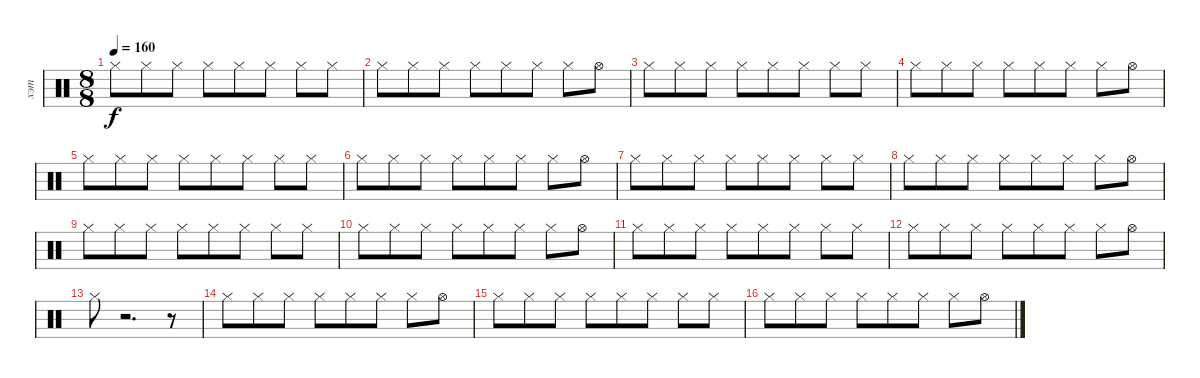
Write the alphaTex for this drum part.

\track ("хэт" "хэт") {instrument percussion}
\staff {score}
\articulation defaults
\ts (8 8)
\tempo 160
\clef neutral
\ks c "Hi-Hat (closed)".8{dy f} "Hi-Hat (closed)".8 "Hi-Hat (closed)".8 "Hi-Hat (closed)".8 "Hi-Hat (closed)".8 "Hi-Hat (closed)".8 "Hi-Hat (closed)".8 "Hi-Hat (closed)".8
|
"Hi-Hat (closed)".8 "Hi-Hat (closed)".8 "Hi-Hat (closed)".8 "Hi-Hat (closed)".8 "Hi-Hat (closed)".8 "Hi-Hat (closed)".8 "Hi-Hat (closed)".8 "Hi-Hat (open)".8 |
"Hi-Hat (closed)".8 "Hi-Hat (closed)".8 "Hi-Hat (closed)".8 "Hi-Hat (closed)".8 "Hi-Hat (closed)".8 "Hi-Hat (closed)".8 "Hi-Hat (closed)".8 "Hi-Hat (closed)".8 |
"Hi-Hat (closed)".8 "Hi-Hat (closed)".8 "Hi-Hat (closed)".8 "Hi-Hat (closed)".8 "Hi-Hat (closed)".8 "Hi-Hat (closed)".8 "Hi-Hat (closed)".8 "Hi-Hat (open)".8 |
"Hi-Hat (closed)".8 "Hi-Hat (closed)".8 "Hi-Hat (closed)".8 "Hi-Hat (closed)".8 "Hi-Hat (closed)".8 "Hi-Hat (closed)".8 "Hi-Hat (closed)".8 "Hi-Hat (closed)".8 |
"Hi-Hat (closed)".8 "Hi-Hat (closed)".8 "Hi-Hat (closed)".8 "Hi-Hat (closed)".8 "Hi-Hat (closed)".8 "Hi-Hat (closed)".8 "Hi-Hat (closed)".8 "Hi-Hat (open)".8 |
"Hi-Hat (closed)".8 "Hi-Hat (closed)".8 "Hi-Hat (closed)".8 "Hi-Hat (closed)".8 "Hi-Hat (closed)".8 "Hi-Hat (closed)".8 "Hi-Hat (closed)".8 "Hi-Hat (closed)".8 |
"Hi-Hat (closed)".8 "Hi-Hat (closed)".8 "Hi-Hat (closed)".8 "Hi-Hat (closed)".8 "Hi-Hat (closed)".8 "Hi-Hat (closed)".8 "Hi-Hat (closed)".8 "Hi-Hat (open)".8 |
"Hi-Hat (closed)".8 "Hi-Hat (closed)".8 "Hi-Hat (closed)".8 "Hi-Hat (closed)".8 "Hi-Hat (closed)".8 "Hi-Hat (closed)".8 "Hi-Hat (closed)".8 "Hi-Hat (closed)".8 |
"Hi-Hat (closed)".8 "Hi-Hat (closed)".8 "Hi-Hat (closed)".8 "Hi-Hat (closed)".8 "Hi-Hat (closed)".8 "Hi-Hat (closed)".8 "Hi-Hat (closed)".8 "Hi-Hat (open)".8 |
"Hi-Hat (closed)".8 "Hi-Hat (closed)".8 "Hi-Hat (closed)".8 "Hi-Hat (closed)".8 "Hi-Hat (closed)".8 "Hi-Hat (closed)".8 "Hi-Hat (closed)".8 "Hi-Hat (closed)".8 |
"Hi-Hat (closed)".8 "Hi-Hat (closed)".8 "Hi-Hat (closed)".8 "Hi-Hat (closed)".8 "Hi-Hat (closed)".8 "Hi-Hat (closed)".8 "Hi-Hat (closed)".8 "Hi-Hat (open)".8 |
"Hi-Hat (closed)".8 r.2{d} r.8 |
"Hi-Hat (closed)".8 "Hi-Hat (closed)".8 "Hi-Hat (closed)".8 "Hi-Hat (closed)".8 "Hi-Hat (closed)".8 "Hi-Hat (closed)".8 "Hi-Hat (closed)".8 "Hi-Hat (open)".8 |
"Hi-Hat (closed)".8 "Hi-Hat (closed)".8 "Hi-Hat (closed)".8 "Hi-Hat (closed)".8 "Hi-Hat (closed)".8 "Hi-Hat (closed)".8 "Hi-Hat (closed)".8 "Hi-Hat (closed)".8 |
"Hi-Hat (closed)".8 "Hi-Hat (closed)".8 "Hi-Hat (closed)".8 "Hi-Hat (closed)".8 "Hi-Hat (closed)".8 "Hi-Hat (closed)".8 "Hi-Hat (closed)".8 "Hi-Hat (open)".8
